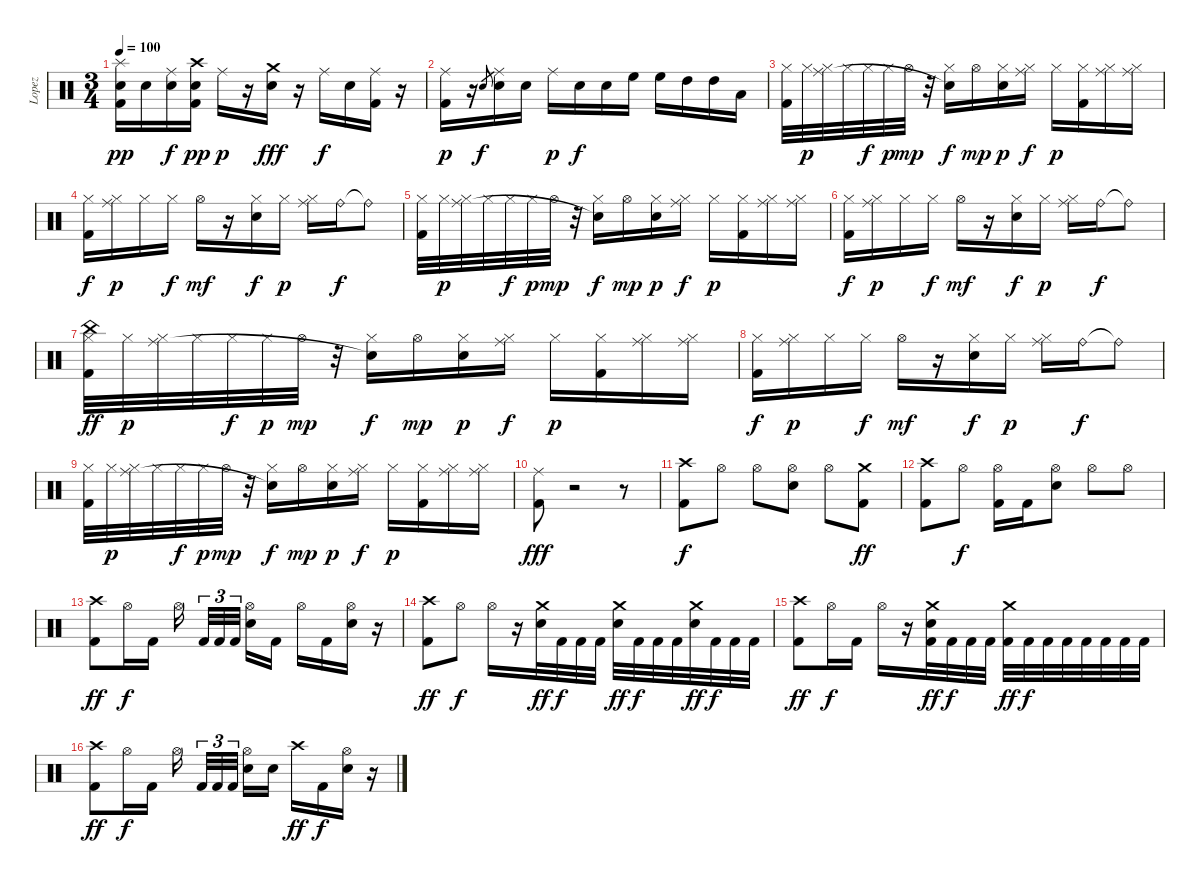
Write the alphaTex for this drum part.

\track ("Lopez" "Lopez") {instrument percussion}
\staff {score}
\articulation defaults
\ts (3 4)
\tempo 100
\clef neutral
\ks c
("Splash (hit)" "Snare (hit) 2" "Kick (hit) 2").16{dy pp} "Snare (hit) 2".16 ("Ride (middle)" "Snare (hit) 2").16{dy f} ("Crash high (hit)" "Electric Snare (hit)" "Kick (hit) 2").16{dy pp} "Ride (middle)".16{dy p} r.16 ("Crash medium (hit)" "Snare (hit) 2").16{dy fff} r.16 "Ride (middle)".16{dy f} "Snare (hit) 2".16 ("Ride (middle)" "Kick (hit) 2").16 r.16 |
("Ride (middle)" "Kick (hit) 2").16{dy p} r.16 "Snare (hit) 2".8{gr dy f} ("Ride (middle)" "Snare (hit) 2").16 "Snare (hit) 2".16 "Ride (middle)".16{dy p} "Snare (hit) 2".16{dy f} "Snare (hit) 2".16 "High Floor Tom (hit)".16 "High Floor Tom (hit)".16 "High Tom (hit)".16 "High Tom (hit)".16 "Low Tom (hit)".16 |
("Hi-Hat (closed)" "Kick (hit) 2").32 "Hi-Hat (closed)".32{dy p} ("Hi-Hat (closed)" "Ride (middle)").32 "Hi-Hat (closed)".32 "Hi-Hat (closed)".32{dy f} "Hi-Hat (closed)".32{dy p} "Hi-Hat (open)".32{dy mp} r.32 ("Hi-Hat (closed)" "Snare (hit)"{t}).16{dy f} "Hi-Hat (open)".16{dy mp} ("Hi-Hat (closed)" "Snare (hit) 2").16{dy p} ("Hi-Hat (closed)" "Ride (middle)").16{dy f} "Hi-Hat (closed)".16{dy p} ("Hi-Hat (closed)" "Kick (hit) 2").16 ("Hi-Hat (closed)" "Ride (middle)").16 ("Hi-Hat (closed)" "Ride (middle)").16 |
("Hi-Hat (closed)" "Kick (hit) 2").16{dy f} ("Hi-Hat (closed)" "Ride (middle)").16{dy p} "Hi-Hat (closed)".16 "Hi-Hat (closed)".16{dy f} "Hi-Hat (open)".16{dy mf} r.16 ("Hi-Hat (closed)" "Snare (hit) 2").16{dy f} "Hi-Hat (closed)".16{dy p} ("Hi-Hat (closed)" "Ride (middle)").16 "Ride (bell)".16{dy f} "Ride (bell)"{t}.8 |
("Hi-Hat (closed)" "Kick (hit) 2").32 "Hi-Hat (closed)".32{dy p} ("Hi-Hat (closed)" "Ride (middle)").32 "Hi-Hat (closed)".32 "Hi-Hat (closed)".32{dy f} "Hi-Hat (closed)".32{dy p} "Hi-Hat (open)".32{dy mp} r.32 ("Hi-Hat (closed)" "Snare (hit)"{t}).16{dy f} "Hi-Hat (open)".16{dy mp} ("Hi-Hat (closed)" "Snare (hit) 2").16{dy p} ("Hi-Hat (closed)" "Ride (middle)").16{dy f} "Hi-Hat (closed)".16{dy p} ("Hi-Hat (closed)" "Kick (hit) 2").16 ("Hi-Hat (closed)" "Ride (middle)").16 ("Hi-Hat (closed)" "Ride (middle)").16 |
("Hi-Hat (closed)" "Kick (hit) 2").16{dy f} ("Hi-Hat (closed)" "Ride (middle)").16{dy p} "Hi-Hat (closed)".16 "Hi-Hat (closed)".16{dy f} "Hi-Hat (open)".16{dy mf} r.16 ("Hi-Hat (closed)" "Snare (hit) 2").16{dy f} "Hi-Hat (closed)".16{dy p} ("Hi-Hat (closed)" "Ride (middle)").16 "Ride (bell)".16{dy f} "Ride (bell)"{t}.8 |
("Hi-Hat (closed)" "China (hit)" "Kick (hit) 2").32{dy ff} "Hi-Hat (closed)".32{dy p} ("Hi-Hat (closed)" "Ride (middle)").32 "Hi-Hat (closed)".32 "Hi-Hat (closed)".32{dy f} "Hi-Hat (closed)".32{dy p} "Hi-Hat (open)".32{dy mp} r.32 ("Hi-Hat (closed)" "Snare (hit)"{t}).16{dy f} "Hi-Hat (open)".16{dy mp} ("Hi-Hat (closed)" "Snare (hit) 2").16{dy p} ("Hi-Hat (closed)" "Ride (middle)").16{dy f} "Hi-Hat (closed)".16{dy p} ("Hi-Hat (closed)" "Kick (hit) 2").16 ("Hi-Hat (closed)" "Ride (middle)").16 ("Hi-Hat (closed)" "Ride (middle)").16 |
("Hi-Hat (closed)" "Kick (hit) 2").16{dy f} ("Hi-Hat (closed)" "Ride (middle)").16{dy p} "Hi-Hat (closed)".16 "Hi-Hat (closed)".16{dy f} "Hi-Hat (open)".16{dy mf} r.16 ("Hi-Hat (closed)" "Snare (hit) 2").16{dy f} "Hi-Hat (closed)".16{dy p} ("Hi-Hat (closed)" "Ride (middle)").16 "Ride (bell)".16{dy f} "Ride (bell)"{t}.8 |
("Hi-Hat (closed)" "Kick (hit) 2").32 "Hi-Hat (closed)".32{dy p} ("Hi-Hat (closed)" "Ride (middle)").32 "Hi-Hat (closed)".32 "Hi-Hat (closed)".32{dy f} "Hi-Hat (closed)".32{dy p} "Hi-Hat (open)".32{dy mp} r.32 ("Hi-Hat (closed)" "Snare (hit)"{t}).16{dy f} "Hi-Hat (open)".16{dy mp} ("Hi-Hat (closed)" "Snare (hit) 2").16{dy p} ("Hi-Hat (closed)" "Ride (middle)").16{dy f} "Hi-Hat (closed)".16{dy p} ("Hi-Hat (closed)" "Kick (hit) 2").16 ("Hi-Hat (closed)" "Ride (middle)").16 ("Hi-Hat (closed)" "Ride (middle)").16 |
("Ride (middle)" "Kick (hit) 2").8{dy fff} r.2 r.8 |
("Crash high (hit)" "Kick (hit) 2").8{dy f} "Hi-Hat (open)".8 "Hi-Hat (open)".8 ("Hi-Hat (open)" "Snare (hit) 2").8 "Hi-Hat (open)".8 ("Crash medium (hit)" "Kick (hit) 2").8{dy ff} |
("Crash high (hit)" "Kick (hit) 2").8 "Hi-Hat (open)".8{dy f} ("Hi-Hat (open)" "Kick (hit) 2").16 "Kick (hit) 2".16 ("Hi-Hat (open)" "Snare (hit) 2").8 "Hi-Hat (open)".8 "Hi-Hat (open)".8 |
("Crash high (hit)" "Kick (hit) 2").8{dy ff} "Hi-Hat (open)".16{dy f} "Kick (hit) 2".16 "Hi-Hat (open)".16 "Kick (hit) 2".32{tu (3 2)} "Kick (hit) 2".32{tu (3 2)} "Kick (hit) 2".32{tu (3 2)} ("Hi-Hat (open)" "Snare (hit) 2").16 "Kick (hit) 2".16 "Hi-Hat (open)".16 "Kick (hit) 2".16 ("Hi-Hat (open)" "Snare (hit) 2").16 r.16 |
("Crash high (hit)" "Kick (hit) 2").8{dy ff} "Hi-Hat (open)".8{dy f} "Hi-Hat (open)".16 r.16 ("Crash medium (hit)" "Snare (hit) 2").32{dy ff} "Kick (hit) 2".32{dy f} "Kick (hit) 2".32 "Kick (hit) 2".32 ("Crash medium (hit)" "Snare (hit) 2").32{dy ff} "Kick (hit) 2".32{dy f} "Kick (hit) 2".32 "Kick (hit) 2".32 ("Crash medium (hit)" "Snare (hit) 2").32{dy ff} "Kick (hit) 2".32{dy f} "Kick (hit) 2".32 "Kick (hit) 2".32 |
("Crash high (hit)" "Kick (hit) 2").8{dy ff} "Hi-Hat (open)".16{dy f} "Kick (hit) 2".16 "Hi-Hat (open)".16 r.16 ("Crash medium (hit)" "Snare (hit) 2" "Kick (hit) 2").32{dy ff} "Kick (hit) 2".32{dy f} "Kick (hit) 2".32 "Kick (hit) 2".32 ("Crash medium (hit)" "Kick (hit) 2").32{dy ff} "Kick (hit) 2".32{dy f} "Kick (hit) 2".32 "Kick (hit) 2".32 "Kick (hit) 2".32 "Kick (hit) 2".32 "Kick (hit) 2".32 "Kick (hit) 2".32 |
("Crash high (hit)" "Kick (hit) 2").8{dy ff} "Hi-Hat (open)".16{dy f} "Kick (hit) 2".16 "Hi-Hat (open)".16 "Kick (hit) 2".32{tu (3 2)} "Kick (hit) 2".32{tu (3 2)} "Kick (hit) 2".32{tu (3 2)} ("Hi-Hat (open)" "Snare (hit) 2").16 "Snare (hit) 2".16 "Crash high (hit)".16{dy ff} "Kick (hit) 2".16{dy f} ("Hi-Hat (open)" "Snare (hit) 2").16 r.16
